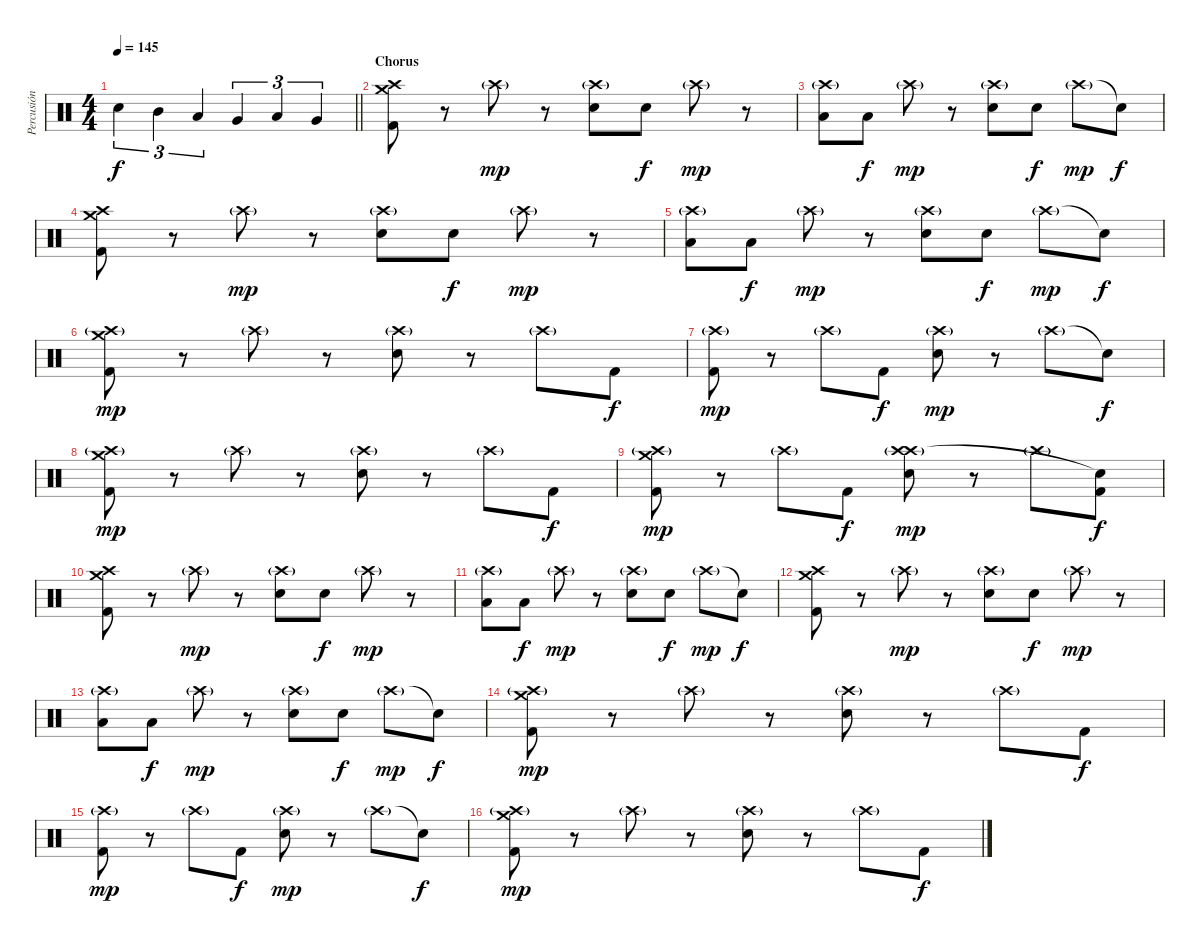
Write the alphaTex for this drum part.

\track ("Percusión" "Percusión") {instrument percussion}
\staff {score}
\articulation defaults
\ts (4 4)
\tempo 145
\clef neutral
\barLineRight lightlight
\ks c "Electric Snare (hit)".4{tu (3 2) dy f} "Mid Tom (hit)".4{tu (3 2)} "Low Tom (hit)".4{tu (3 2)} "Very Low Tom (hit)".4{tu (3 2)} "Low Tom (hit)".4{tu (3 2)} "Very Low Tom (hit)".4{tu (3 2)}
|
\section ("" "Chorus")
("Kick (hit) 2" "Crash high (hit)" "Crash medium (hit)").8 r.8 "Crash high (hit)"{g}.8{dy mp} r.8 ("Electric Snare (hit)" "Crash high (hit)"{g}).8 "Electric Snare (hit)".8{dy f} "Crash high (hit)"{g}.8{dy mp} r.8 |
("Low Tom (hit)" "Crash high (hit)"{g}).8 "Low Tom (hit)".8{dy f} "Crash high (hit)"{g}.8{dy mp} r.8 ("Electric Snare (hit)" "Crash high (hit)"{g}).8 "Electric Snare (hit)".8{dy f} "Crash high (hit)"{g}.8{dy mp} "Snare (hit)"{t}.8{dy f} |
("Kick (hit) 2" "Crash high (hit)" "Crash medium (hit)").8 r.8 "Crash high (hit)"{g}.8{dy mp} r.8 ("Electric Snare (hit)" "Crash high (hit)"{g}).8 "Electric Snare (hit)".8{dy f} "Crash high (hit)"{g}.8{dy mp} r.8 |
("Low Tom (hit)" "Crash high (hit)"{g}).8 "Low Tom (hit)".8{dy f} "Crash high (hit)"{g}.8{dy mp} r.8 ("Electric Snare (hit)" "Crash high (hit)"{g}).8 "Electric Snare (hit)".8{dy f} "Crash high (hit)"{g}.8{dy mp} "Snare (hit)"{t}.8{dy f} |
("Kick (hit) 2" "Crash high (hit)"{g} "Crash medium (hit)").8{dy mp} r.8 "Crash high (hit)"{g}.8 r.8 ("Electric Snare (hit)" "Crash high (hit)"{g}).8 r.8 "Crash high (hit)"{g}.8 "Kick (hit) 2".8{dy f} |
("Kick (hit) 2" "Crash high (hit)"{g}).8{dy mp} r.8 "Crash high (hit)"{g}.8 "Kick (hit) 2".8{dy f} ("Electric Snare (hit)" "Crash high (hit)"{g}).8{dy mp} r.8 "Crash high (hit)"{g}.8 "Snare (hit)"{t}.8{dy f} |
("Kick (hit) 2" "Crash high (hit)"{g} "Crash medium (hit)").8{dy mp} r.8 "Crash high (hit)"{g}.8 r.8 ("Electric Snare (hit)" "Crash high (hit)"{g}).8 r.8 "Crash high (hit)"{g}.8 "Kick (hit) 2".8{dy f} |
("Kick (hit) 2" "Crash high (hit)"{g} "Crash medium (hit)").8{dy mp} r.8 "Crash high (hit)"{g}.8 "Kick (hit) 2".8{dy f} ("Electric Snare (hit)" "Crash high (hit)"{g} "Crash high (hit)").8{dy mp} r.8 "Crash high (hit)"{g}.8 ("Kick (hit) 2" "Snare (hit)"{t}).8{dy f} |
("Kick (hit) 2" "Crash high (hit)" "Crash medium (hit)").8 r.8 "Crash high (hit)"{g}.8{dy mp} r.8 ("Electric Snare (hit)" "Crash high (hit)"{g}).8 "Electric Snare (hit)".8{dy f} "Crash high (hit)"{g}.8{dy mp} r.8 |
("Low Tom (hit)" "Crash high (hit)"{g}).8 "Low Tom (hit)".8{dy f} "Crash high (hit)"{g}.8{dy mp} r.8 ("Electric Snare (hit)" "Crash high (hit)"{g}).8 "Electric Snare (hit)".8{dy f} "Crash high (hit)"{g}.8{dy mp} "Snare (hit)"{t}.8{dy f} |
("Kick (hit) 2" "Crash high (hit)" "Crash medium (hit)").8 r.8 "Crash high (hit)"{g}.8{dy mp} r.8 ("Electric Snare (hit)" "Crash high (hit)"{g}).8 "Electric Snare (hit)".8{dy f} "Crash high (hit)"{g}.8{dy mp} r.8 |
("Low Tom (hit)" "Crash high (hit)"{g}).8 "Low Tom (hit)".8{dy f} "Crash high (hit)"{g}.8{dy mp} r.8 ("Electric Snare (hit)" "Crash high (hit)"{g}).8 "Electric Snare (hit)".8{dy f} "Crash high (hit)"{g}.8{dy mp} "Snare (hit)"{t}.8{dy f} |
("Kick (hit) 2" "Crash high (hit)"{g} "Crash medium (hit)").8{dy mp} r.8 "Crash high (hit)"{g}.8 r.8 ("Electric Snare (hit)" "Crash high (hit)"{g}).8 r.8 "Crash high (hit)"{g}.8 "Kick (hit) 2".8{dy f} |
("Kick (hit) 2" "Crash high (hit)"{g}).8{dy mp} r.8 "Crash high (hit)"{g}.8 "Kick (hit) 2".8{dy f} ("Electric Snare (hit)" "Crash high (hit)"{g}).8{dy mp} r.8 "Crash high (hit)"{g}.8 "Snare (hit)"{t}.8{dy f} |
("Kick (hit) 2" "Crash high (hit)"{g} "Crash medium (hit)").8{dy mp} r.8 "Crash high (hit)"{g}.8 r.8 ("Electric Snare (hit)" "Crash high (hit)"{g}).8 r.8 "Crash high (hit)"{g}.8 "Kick (hit) 2".8{dy f}
